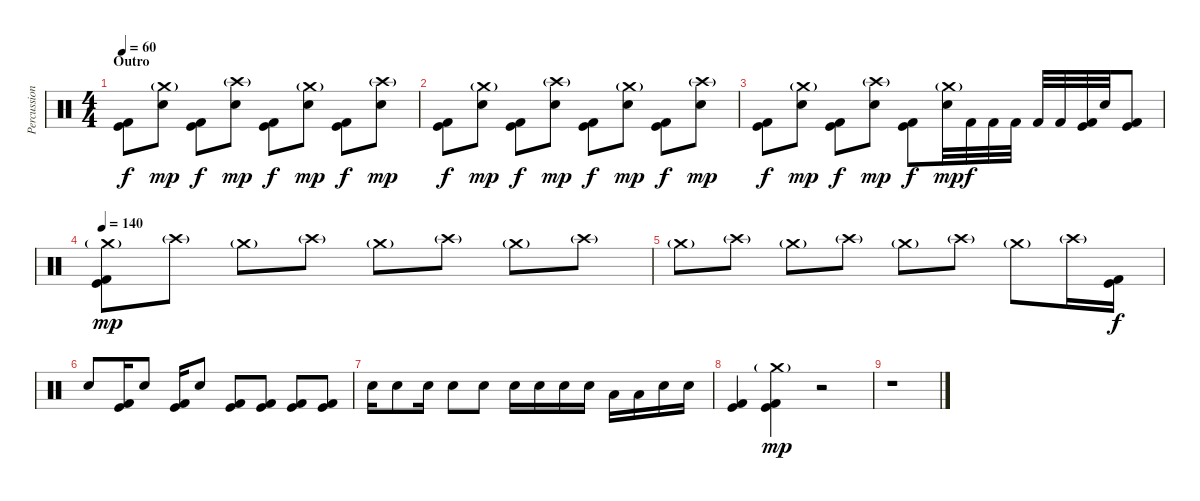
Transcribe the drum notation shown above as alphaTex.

\track ("Percussion" "Percussion") {instrument percussion}
\staff {score}
\articulation defaults
\ts (4 4)
\section ("" "Outro")
\tempo 60
\clef neutral
\ks c
("Kick (hit)" "Kick (hit) 2").8{dy f} ("Crash medium (hit)"{g} "Electric Snare (hit)").8{dy mp} ("Kick (hit)" "Kick (hit) 2").8{dy f} ("Crash high (hit)"{g} "Electric Snare (hit)").8{dy mp} ("Kick (hit)" "Kick (hit) 2").8{dy f} ("Crash medium (hit)"{g} "Electric Snare (hit)").8{dy mp} ("Kick (hit)" "Kick (hit) 2").8{dy f} ("Crash high (hit)"{g} "Electric Snare (hit)").8{dy mp} |
("Kick (hit)" "Kick (hit) 2").8{dy f} ("Crash medium (hit)"{g} "Electric Snare (hit)").8{dy mp} ("Kick (hit)" "Kick (hit) 2").8{dy f} ("Crash high (hit)"{g} "Electric Snare (hit)").8{dy mp} ("Kick (hit)" "Kick (hit) 2").8{dy f} ("Crash medium (hit)"{g} "Electric Snare (hit)").8{dy mp} ("Kick (hit)" "Kick (hit) 2").8{dy f} ("Crash high (hit)"{g} "Electric Snare (hit)").8{dy mp} |
("Kick (hit)" "Kick (hit) 2").8{dy f} ("Crash medium (hit)"{g} "Electric Snare (hit)").8{dy mp} ("Kick (hit)" "Kick (hit) 2").8{dy f} ("Crash high (hit)"{g} "Electric Snare (hit)").8{dy mp} ("Kick (hit)" "Kick (hit) 2").8{dy f} ("Crash medium (hit)"{g} "Electric Snare (hit)").32{dy mp} "Kick (hit) 2".32{dy f} "Kick (hit) 2".32 "Kick (hit) 2".32 "Kick (hit) 2".32 "Kick (hit) 2".32 ("Kick (hit)" "Kick (hit) 2").32 "Electric Snare (hit)".32 ("Kick (hit)" "Kick (hit) 2").8 |
\tempo 140
("Crash medium (hit)"{g} "Kick (hit)" "Kick (hit) 2").8{dy mp} "Crash high (hit)"{g}.8 "Crash medium (hit)"{g}.8 "Crash high (hit)"{g}.8 "Crash medium (hit)"{g}.8 "Crash high (hit)"{g}.8 "Crash medium (hit)"{g}.8 "Crash high (hit)"{g}.8 |
"Crash medium (hit)"{g}.8 "Crash high (hit)"{g}.8 "Crash medium (hit)"{g}.8 "Crash high (hit)"{g}.8 "Crash medium (hit)"{g}.8 "Crash high (hit)"{g}.8 "Crash medium (hit)"{g}.8 "Crash high (hit)"{g}.16 ("Kick (hit)" "Kick (hit) 2").16{dy f} |
"Electric Snare (hit)".8 ("Kick (hit)" "Kick (hit) 2").16 "Electric Snare (hit)".8 ("Kick (hit)" "Kick (hit) 2").16 "Electric Snare (hit)".8 ("Kick (hit)" "Kick (hit) 2").8 ("Kick (hit)" "Kick (hit) 2").8 ("Kick (hit)" "Kick (hit) 2").8 ("Kick (hit)" "Kick (hit) 2").8 |
"Electric Snare (hit)".16 "Electric Snare (hit)".8 "Electric Snare (hit)".16 "Electric Snare (hit)".8 "Electric Snare (hit)".8 "Electric Snare (hit)".16 "Electric Snare (hit)".16 "Electric Snare (hit)".16 "Electric Snare (hit)".16 "Low Tom (hit)".16 "Low Tom (hit)".16 "Electric Snare (hit)".16 "Electric Snare (hit)".16 |
("Kick (hit)" "Kick (hit) 2").4 ("Crash medium (hit)"{g} "Kick (hit)" "Kick (hit) 2").4{dy mp} r.2 |
r.1
